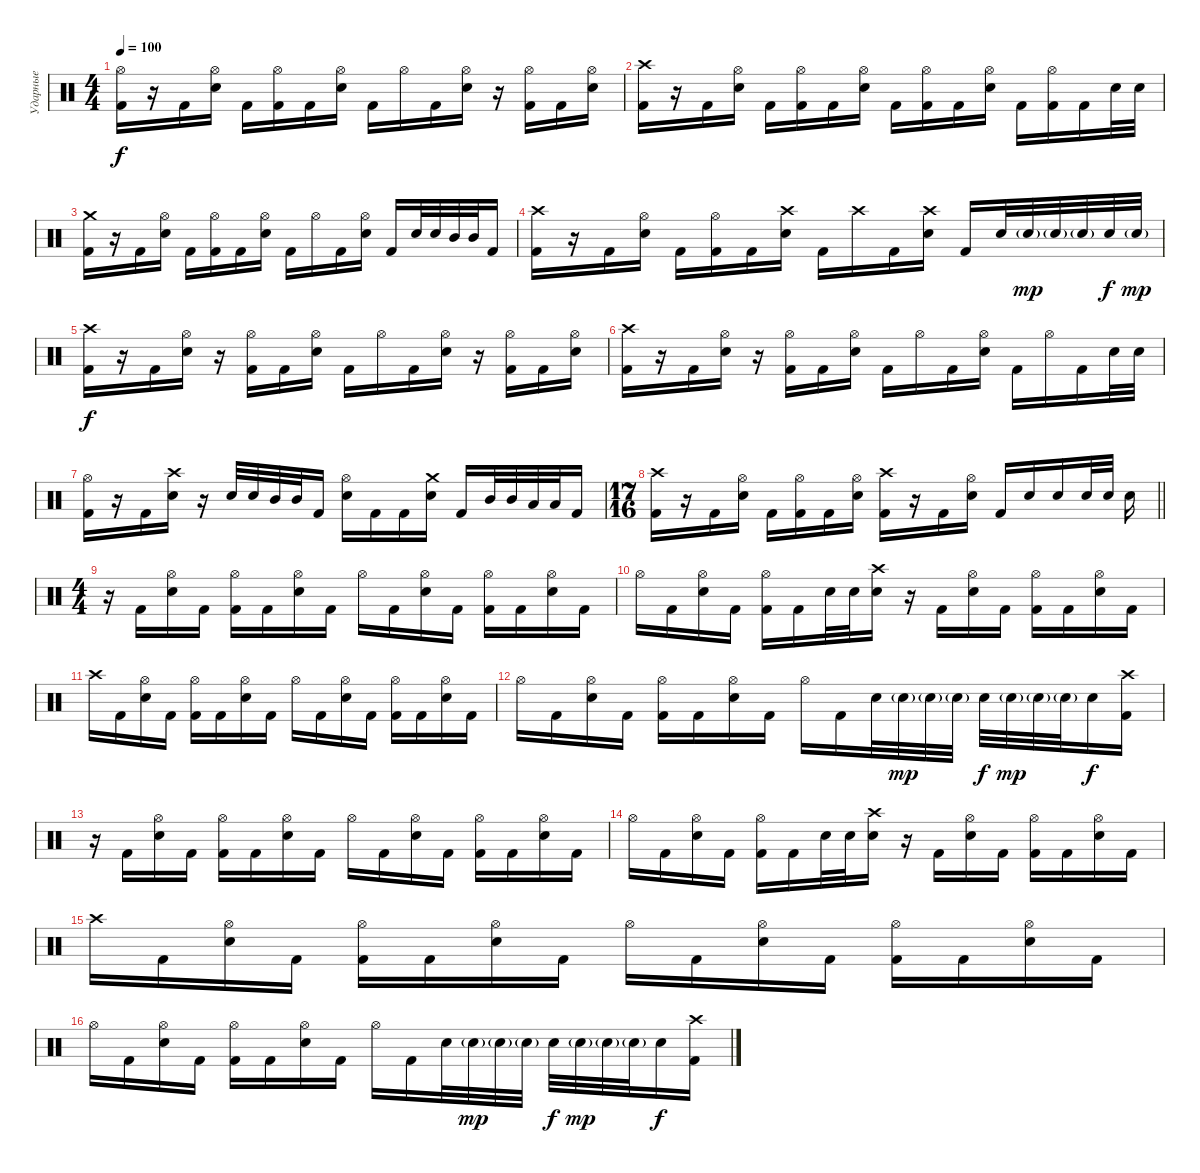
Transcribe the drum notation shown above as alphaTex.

\track ("Ударные" "Ударные") {instrument percussion}
\staff {score}
\articulation defaults
\ts (4 4)
\section ("" "")
\tempo 100
\clef neutral
\ks c
("Hi-Hat (open)" "Kick (hit) 2").16{dy f} r.16 "Kick (hit) 2".16 ("Hi-Hat (open)" "Electric Snare (hit)").16 "Kick (hit) 2".16 ("Hi-Hat (open)" "Kick (hit) 2").16 "Kick (hit) 2".16 ("Hi-Hat (open)" "Electric Snare (hit)").16 "Kick (hit) 2".16 "Hi-Hat (open)".16 "Kick (hit) 2".16 ("Hi-Hat (open)" "Electric Snare (hit)").16 r.16 ("Hi-Hat (open)" "Kick (hit) 2").16 "Kick (hit) 2".16 ("Hi-Hat (open)" "Electric Snare (hit)").16 |
("Crash high (hit)" "Kick (hit) 2").16 r.16 "Kick (hit) 2".16 ("Hi-Hat (open)" "Electric Snare (hit)").16 "Kick (hit) 2".16 ("Hi-Hat (open)" "Kick (hit) 2").16 "Kick (hit) 2".16 ("Hi-Hat (open)" "Electric Snare (hit)").16 "Kick (hit) 2".16 ("Hi-Hat (open)" "Kick (hit) 2").16 "Kick (hit) 2".16 ("Hi-Hat (open)" "Electric Snare (hit)").16 "Kick (hit) 2".16 ("Hi-Hat (open)" "Kick (hit) 2").16 "Kick (hit) 2".16 "Electric Snare (hit)".32 "Electric Snare (hit)".32 |
("Crash medium (hit)" "Kick (hit) 2").16 r.16 "Kick (hit) 2".16 ("Hi-Hat (open)" "Electric Snare (hit)").16 "Kick (hit) 2".16 ("Hi-Hat (open)" "Kick (hit) 2").16 "Kick (hit) 2".16 ("Hi-Hat (open)" "Electric Snare (hit)").16 "Kick (hit) 2".16 "Hi-Hat (open)".16 "Kick (hit) 2".16 ("Hi-Hat (open)" "Electric Snare (hit)").16 "Kick (hit) 2".16 "Electric Snare (hit)".32 "Electric Snare (hit)".32 "Mid Tom (hit)".32 "Mid Tom (hit)".32 "Kick (hit) 2".16 |
("Crash high (hit)" "Kick (hit) 2").16 r.16 "Kick (hit) 2".16 ("Hi-Hat (open)" "Electric Snare (hit)").16 "Kick (hit) 2".16 ("Hi-Hat (open)" "Kick (hit) 2").16 "Kick (hit) 2".16 ("Crash high (hit)" "Electric Snare (hit)").16 "Kick (hit) 2".16 "Crash high (hit)".16 "Kick (hit) 2".16 ("Crash high (hit)" "Electric Snare (hit)").16 "Kick (hit) 2".16 "Electric Snare (hit)".32 "Electric Snare (hit)"{g}.32{dy mp} "Electric Snare (hit)"{g}.32 "Electric Snare (hit)"{g}.32 "Electric Snare (hit)".32{dy f} "Electric Snare (hit)"{g}.32{dy mp} |
("Crash high (hit)" "Kick (hit) 2").16{dy f} r.16 "Kick (hit) 2".16 ("Hi-Hat (open)" "Electric Snare (hit)").16 r.16 ("Hi-Hat (open)" "Kick (hit) 2").16 "Kick (hit) 2".16 ("Hi-Hat (open)" "Electric Snare (hit)").16 "Kick (hit) 2".16 "Hi-Hat (open)".16 "Kick (hit) 2".16 ("Hi-Hat (open)" "Electric Snare (hit)").16 r.16 ("Hi-Hat (open)" "Kick (hit) 2").16 "Kick (hit) 2".16 ("Hi-Hat (open)" "Electric Snare (hit)").16 |
("Crash high (hit)" "Kick (hit) 2").16 r.16 "Kick (hit) 2".16 ("Hi-Hat (open)" "Electric Snare (hit)").16 r.16 ("Hi-Hat (open)" "Kick (hit) 2").16 "Kick (hit) 2".16 ("Hi-Hat (open)" "Electric Snare (hit)").16 "Kick (hit) 2".16 "Hi-Hat (open)".16 "Kick (hit) 2".16 ("Hi-Hat (open)" "Electric Snare (hit)").16 "Kick (hit) 2".16 "Hi-Hat (open)".16 "Kick (hit) 2".16 "Electric Snare (hit)".32 "Electric Snare (hit)".32 |
("Hi-Hat (open)" "Kick (hit) 2").16 r.16 "Kick (hit) 2".16 ("Crash high (hit)" "Electric Snare (hit)").16 r.16 "Electric Snare (hit)".32 "Electric Snare (hit)".32 "Mid Tom (hit)".32 "Mid Tom (hit)".32 "Kick (hit) 2".16 ("Hi-Hat (open)" "Electric Snare (hit)").16 "Kick (hit) 2".16 "Kick (hit) 2".16 ("Crash medium (hit)" "Electric Snare (hit)").16 "Kick (hit) 2".16 "Mid Tom (hit)".32 "Mid Tom (hit)".32 "Low Floor Tom (hit)".32 "Low Floor Tom (hit)".32 "Kick (hit) 2".16 |
\ts (17 16)
\barLineRight lightlight
("Crash high (hit)" "Kick (hit) 2").16 r.16 "Kick (hit) 2".16 ("Hi-Hat (open)" "Electric Snare (hit)").16 "Kick (hit) 2".16 ("Hi-Hat (open)" "Kick (hit) 2").16 "Kick (hit) 2".16 ("Hi-Hat (open)" "Electric Snare (hit)").16 ("Crash high (hit)" "Kick (hit) 2").16 r.16 "Kick (hit) 2".16 ("Hi-Hat (open)" "Electric Snare (hit)").16 "Kick (hit) 2".16 "Electric Snare (hit)".16 "Electric Snare (hit)".16 "Electric Snare (hit)".32 "Electric Snare (hit)".32 "Electric Snare (hit)".16 |
\ts (4 4)
\section ("" "")
r.16 "Kick (hit) 2".16 ("Hi-Hat (open)" "Electric Snare (hit)").16 "Kick (hit) 2".16 ("Hi-Hat (open)" "Kick (hit) 2").16 "Kick (hit) 2".16 ("Hi-Hat (open)" "Electric Snare (hit)").16 "Kick (hit) 2".16 "Hi-Hat (open)".16 "Kick (hit) 2".16 ("Hi-Hat (open)" "Electric Snare (hit)").16 "Kick (hit) 2".16 ("Hi-Hat (open)" "Kick (hit) 2").16 "Kick (hit) 2".16 ("Hi-Hat (open)" "Electric Snare (hit)").16 "Kick (hit) 2".16 |
"Hi-Hat (open)".16 "Kick (hit) 2".16 ("Hi-Hat (open)" "Electric Snare (hit)").16 "Kick (hit) 2".16 ("Hi-Hat (open)" "Kick (hit) 2").16 "Kick (hit) 2".16 "Electric Snare (hit)".32 "Electric Snare (hit)".32 ("Crash high (hit)" "Electric Snare (hit)").16 r.16 "Kick (hit) 2".16 ("Hi-Hat (open)" "Electric Snare (hit)").16 "Kick (hit) 2".16 ("Hi-Hat (open)" "Kick (hit) 2").16 "Kick (hit) 2".16 ("Hi-Hat (open)" "Electric Snare (hit)").16 "Kick (hit) 2".16 |
"Crash high (hit)".16 "Kick (hit) 2".16 ("Hi-Hat (open)" "Electric Snare (hit)").16 "Kick (hit) 2".16 ("Hi-Hat (open)" "Kick (hit) 2").16 "Kick (hit) 2".16 ("Hi-Hat (open)" "Electric Snare (hit)").16 "Kick (hit) 2".16 "Hi-Hat (open)".16 "Kick (hit) 2".16 ("Hi-Hat (open)" "Electric Snare (hit)").16 "Kick (hit) 2".16 ("Hi-Hat (open)" "Kick (hit) 2").16 "Kick (hit) 2".16 ("Hi-Hat (open)" "Electric Snare (hit)").16 "Kick (hit) 2".16 |
"Hi-Hat (open)".16 "Kick (hit) 2".16 ("Hi-Hat (open)" "Electric Snare (hit)").16 "Kick (hit) 2".16 ("Hi-Hat (open)" "Kick (hit) 2").16 "Kick (hit) 2".16 ("Hi-Hat (open)" "Electric Snare (hit)").16 "Kick (hit) 2".16 "Hi-Hat (open)".16 "Kick (hit) 2".16 "Electric Snare (hit)".32 "Electric Snare (hit)"{g}.32{dy mp} "Electric Snare (hit)"{g}.32 "Electric Snare (hit)"{g}.32 "Electric Snare (hit)".32{dy f} "Electric Snare (hit)"{g}.32{dy mp} "Electric Snare (hit)"{g}.32 "Electric Snare (hit)"{g}.32 "Electric Snare (hit)".16{dy f} ("Crash high (hit)" "Kick (hit) 2").16 |
r.16 "Kick (hit) 2".16 ("Hi-Hat (open)" "Electric Snare (hit)").16 "Kick (hit) 2".16 ("Hi-Hat (open)" "Kick (hit) 2").16 "Kick (hit) 2".16 ("Hi-Hat (open)" "Electric Snare (hit)").16 "Kick (hit) 2".16 "Hi-Hat (open)".16 "Kick (hit) 2".16 ("Hi-Hat (open)" "Electric Snare (hit)").16 "Kick (hit) 2".16 ("Hi-Hat (open)" "Kick (hit) 2").16 "Kick (hit) 2".16 ("Hi-Hat (open)" "Electric Snare (hit)").16 "Kick (hit) 2".16 |
"Hi-Hat (open)".16 "Kick (hit) 2".16 ("Hi-Hat (open)" "Electric Snare (hit)").16 "Kick (hit) 2".16 ("Hi-Hat (open)" "Kick (hit) 2").16 "Kick (hit) 2".16 "Electric Snare (hit)".32 "Electric Snare (hit)".32 ("Crash high (hit)" "Electric Snare (hit)").16 r.16 "Kick (hit) 2".16 ("Hi-Hat (open)" "Electric Snare (hit)").16 "Kick (hit) 2".16 ("Hi-Hat (open)" "Kick (hit) 2").16 "Kick (hit) 2".16 ("Hi-Hat (open)" "Electric Snare (hit)").16 "Kick (hit) 2".16 |
"Crash high (hit)".16 "Kick (hit) 2".16 ("Hi-Hat (open)" "Electric Snare (hit)").16 "Kick (hit) 2".16 ("Hi-Hat (open)" "Kick (hit) 2").16 "Kick (hit) 2".16 ("Hi-Hat (open)" "Electric Snare (hit)").16 "Kick (hit) 2".16 "Hi-Hat (open)".16 "Kick (hit) 2".16 ("Hi-Hat (open)" "Electric Snare (hit)").16 "Kick (hit) 2".16 ("Hi-Hat (open)" "Kick (hit) 2").16 "Kick (hit) 2".16 ("Hi-Hat (open)" "Electric Snare (hit)").16 "Kick (hit) 2".16 |
"Hi-Hat (open)".16 "Kick (hit) 2".16 ("Hi-Hat (open)" "Electric Snare (hit)").16 "Kick (hit) 2".16 ("Hi-Hat (open)" "Kick (hit) 2").16 "Kick (hit) 2".16 ("Hi-Hat (open)" "Electric Snare (hit)").16 "Kick (hit) 2".16 "Hi-Hat (open)".16 "Kick (hit) 2".16 "Electric Snare (hit)".32 "Electric Snare (hit)"{g}.32{dy mp} "Electric Snare (hit)"{g}.32 "Electric Snare (hit)"{g}.32 "Electric Snare (hit)".32{dy f} "Electric Snare (hit)"{g}.32{dy mp} "Electric Snare (hit)"{g}.32 "Electric Snare (hit)"{g}.32 "Electric Snare (hit)".16{dy f} ("Crash high (hit)" "Kick (hit) 2").16
